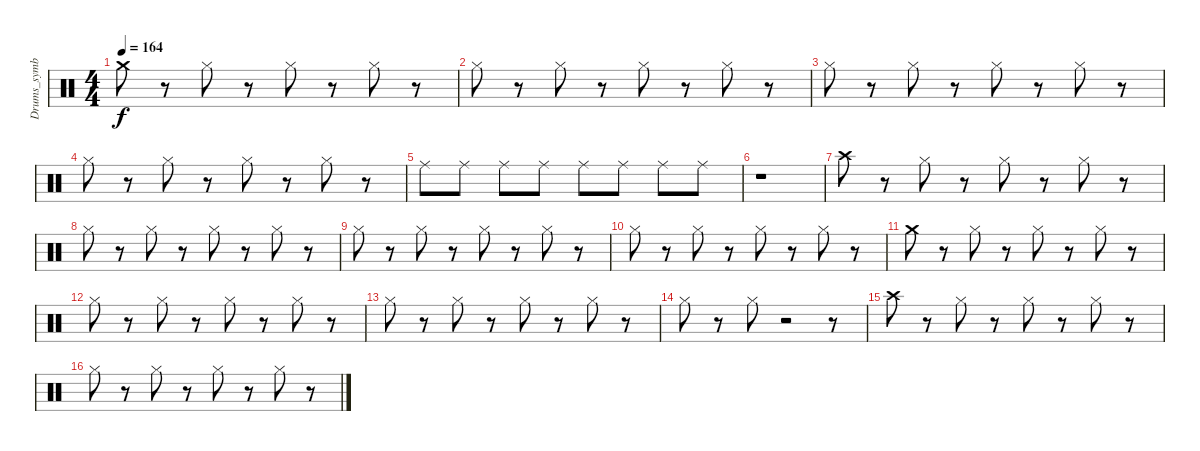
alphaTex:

\track ("Drums_symbal" "Drums_symb") {instrument percussion}
\staff {score}
\articulation defaults
\ts (4 4)
\tempo 164
\clef neutral
\ks c "Crash medium (hit)".8{dy f}
r.8 "Hi-Hat (closed)".8 r.8 "Hi-Hat (closed)".8 r.8 "Hi-Hat (closed)".8 r.8 |
"Hi-Hat (closed)".8 r.8 "Hi-Hat (closed)".8 r.8 "Hi-Hat (closed)".8 r.8 "Hi-Hat (closed)".8 r.8 |
"Hi-Hat (closed)".8 r.8 "Hi-Hat (closed)".8 r.8 "Hi-Hat (closed)".8 r.8 "Hi-Hat (closed)".8 r.8 |
"Hi-Hat (closed)".8 r.8 "Hi-Hat (closed)".8 r.8 "Hi-Hat (closed)".8 r.8 "Hi-Hat (closed)".8 r.8 |
"Ride (middle)".8 "Ride (middle)".8 "Ride (middle)".8 "Ride (middle)".8 "Ride (middle)".8 "Ride (middle)".8 "Ride (middle)".8 "Ride (middle)".8 |
r.1 |
"Crash high (hit)".8 r.8 "Hi-Hat (closed)".8 r.8 "Hi-Hat (closed)".8 r.8 "Hi-Hat (closed)".8 r.8 |
"Hi-Hat (closed)".8 r.8 "Hi-Hat (closed)".8 r.8 "Hi-Hat (closed)".8 r.8 "Hi-Hat (closed)".8 r.8 |
"Hi-Hat (closed)".8 r.8 "Hi-Hat (closed)".8 r.8 "Hi-Hat (closed)".8 r.8 "Hi-Hat (closed)".8 r.8 |
"Hi-Hat (closed)".8 r.8 "Hi-Hat (closed)".8 r.8 "Hi-Hat (closed)".8 r.8 "Hi-Hat (closed)".8 r.8 |
"Crash medium (hit)".8 r.8 "Hi-Hat (closed)".8 r.8 "Hi-Hat (closed)".8 r.8 "Hi-Hat (closed)".8 r.8 |
"Hi-Hat (closed)".8 r.8 "Hi-Hat (closed)".8 r.8 "Hi-Hat (closed)".8 r.8 "Hi-Hat (closed)".8 r.8 |
"Hi-Hat (closed)".8 r.8 "Hi-Hat (closed)".8 r.8 "Hi-Hat (closed)".8 r.8 "Hi-Hat (closed)".8 r.8 |
"Hi-Hat (closed)".8 r.8 "Hi-Hat (closed)".8 r.2 r.8 |
"Crash high (hit)".8 r.8 "Hi-Hat (closed)".8 r.8 "Hi-Hat (closed)".8 r.8 "Hi-Hat (closed)".8 r.8 |
"Hi-Hat (closed)".8 r.8 "Hi-Hat (closed)".8 r.8 "Hi-Hat (closed)".8 r.8 "Hi-Hat (closed)".8 r.8
